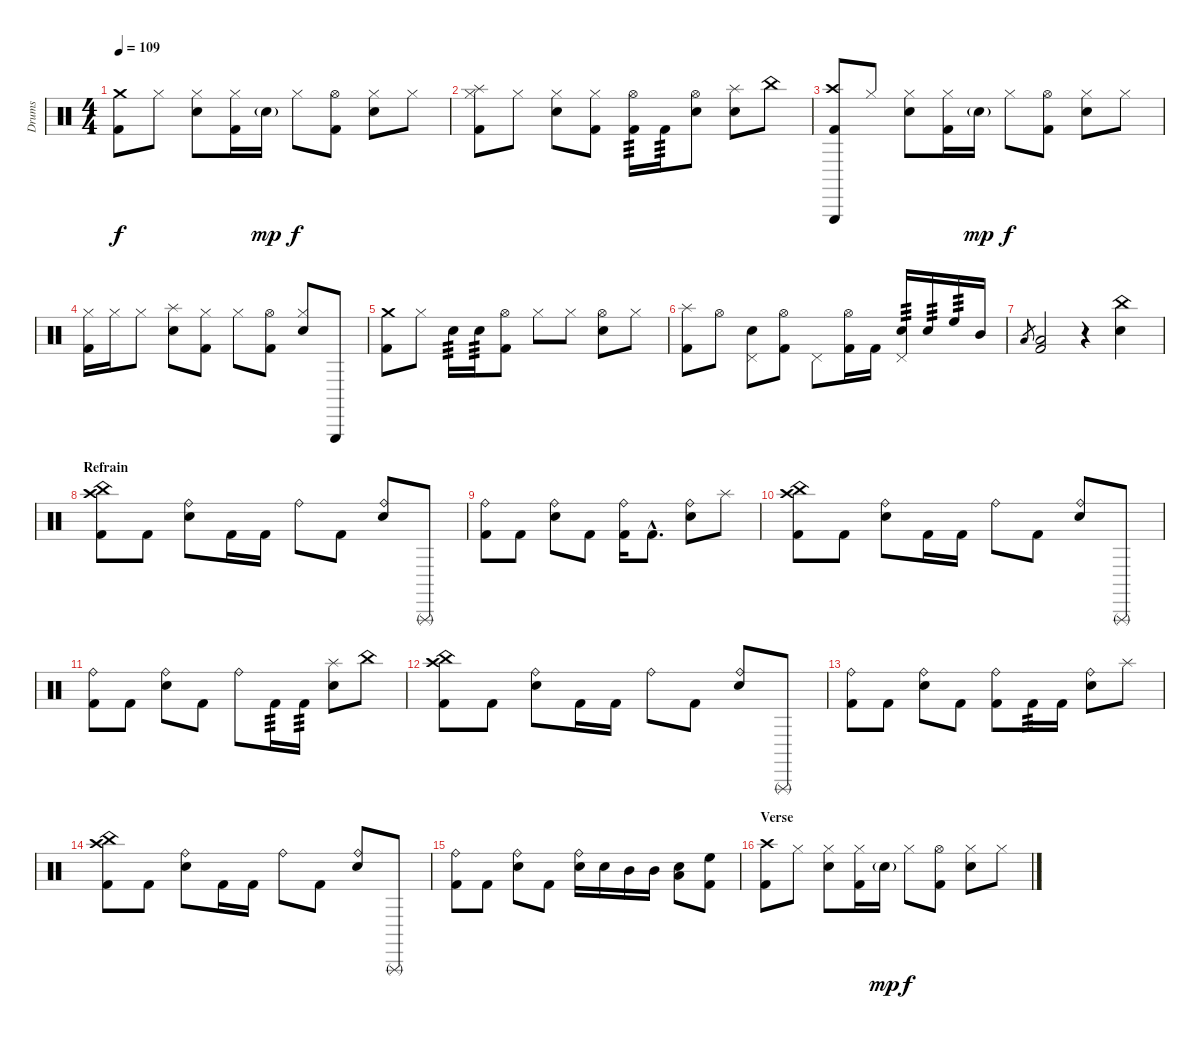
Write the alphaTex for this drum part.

\track ("Drums" "Drums") {instrument percussion}
\staff {score}
\articulation defaults
\ts (4 4)
\tempo 109
\clef neutral
\ks c
("Crash medium (hit)" "Kick (hit) 2").8{dy f} "Hi-Hat (closed)".8 ("Hi-Hat (closed)" "Snare (hit) 2").8 ("Hi-Hat (closed)" "Kick (hit) 2").16 "Snare (hit) 2"{g}.16{dy mp} "Hi-Hat (closed)".8{dy f} ("Hi-Hat (open)" "Kick (hit) 2").8 ("Hi-Hat (closed)" "Snare (hit) 2").8 "Hi-Hat (closed)".8 |
("Hi-Hat (closed)" "Splash (hit)" "Kick (hit) 2").8 "Hi-Hat (closed)".8 ("Hi-Hat (closed)" "Snare (hit) 2").8 ("Hi-Hat (closed)" "Kick (hit) 2").8 ("Hi-Hat (open)" "Kick (hit) 2").16{tp 3} "Kick (hit) 2".16{tp 3} ("Hi-Hat (open)" "Snare (hit) 2").8 ("Splash (hit)" "Snare (hit) 2").8 "China (hit)".8 |
("Crash high (hit)" "Triangle (hit)" "Kick (hit) 2").8 "Hi-Hat (closed)".8 ("Hi-Hat (closed)" "Snare (hit) 2").8 ("Hi-Hat (closed)" "Kick (hit) 2").16 "Snare (hit) 2"{g}.16{dy mp} "Hi-Hat (closed)".8{dy f} ("Hi-Hat (open)" "Kick (hit) 2").8 ("Hi-Hat (closed)" "Snare (hit) 2").8 "Hi-Hat (closed)".8 |
("Hi-Hat (closed)" "Kick (hit) 2").16 "Hi-Hat (closed)".16 "Hi-Hat (closed)".8 ("Splash (hit)" "Snare (hit) 2").8 ("Hi-Hat (closed)" "Kick (hit) 2").8 "Hi-Hat (closed)".8 ("Hi-Hat (open)" "Kick (hit) 2").8 ("Hi-Hat (closed)" "Snare (hit) 2").8 "Triangle (hit)".8 |
("Crash medium (hit)" "Kick (hit) 2").8 "Hi-Hat (closed)".8 "Snare (hit) 2".16{tp 3} "Snare (hit) 2".16{tp 3} ("Hi-Hat (open)" "Kick (hit) 2").8 "Hi-Hat (closed)".8 "Hi-Hat (closed)".8 ("Hi-Hat (open)" "Snare (hit) 2").8 "Hi-Hat (closed)".8 |
("Splash (hit)" "Kick (hit) 2").8 "Hi-Hat (open)".8 ("Pedal Hi-Hat (hit)" "Snare (hit) 2").8 ("Hi-Hat (open)" "Kick (hit) 2").8 "Pedal Hi-Hat (hit)".8 ("Hi-Hat (open)" "Kick (hit) 2").16 "Kick (hit) 2".16 ("Pedal Hi-Hat (hit)" "Snare (hit) 2").16{tp 3} "Snare (hit) 2".16{tp 3} "High Floor Tom (hit)".16{tp 3} "Mid Tom (hit)".16 |
"Low Tom (hit)".8{gr} ("Low Tom (hit)" "Kick (hit) 2").2 r.4 ("China (hit)" "Snare (hit) 2").4 |
\section ("" "Refrain")
("Crash high (hit)" "China (hit)" "Kick (hit) 2").8 "Kick (hit) 2".8 ("Ride (bell)" "Snare (hit) 2").8 "Kick (hit) 2".16 "Kick (hit) 2".16 "Ride (bell)".8 "Kick (hit) 2".8 ("Ride (bell)" "Snare (hit) 2").8 "Triangle (rnute)".8 |
("Ride (bell)" "Kick (hit) 2").8 "Kick (hit) 2".8 ("Ride (bell)" "Snare (hit) 2").8 "Kick (hit) 2".8 ("Ride (bell)" "Kick (hit) 2").16 "Kick (hit) 2"{hac}.8{d} ("Ride (bell)" "Electric Snare (hit)").8 "Splash (hit)".8 |
("Crash high (hit)" "China (hit)" "Kick (hit) 2").8 "Kick (hit) 2".8 ("Ride (bell)" "Snare (hit) 2").8 "Kick (hit) 2".16 "Kick (hit) 2".16 "Ride (bell)".8 "Kick (hit) 2".8 ("Ride (bell)" "Snare (hit) 2").8 "Triangle (rnute)".8 |
("Ride (bell)" "Kick (hit) 2").8 "Kick (hit) 2".8 ("Ride (bell)" "Snare (hit) 2").8 "Kick (hit) 2".8 "Ride (bell)".8 "Kick (hit) 2".16{tp 3} "Kick (hit) 2".16{tp 3} ("Splash (hit)" "Electric Snare (hit)").8 "China (hit)".8 |
("Crash high (hit)" "China (hit)" "Kick (hit) 2").8 "Kick (hit) 2".8 ("Ride (bell)" "Snare (hit) 2").8 "Kick (hit) 2".16 "Kick (hit) 2".16 "Ride (bell)".8 "Kick (hit) 2".8 ("Ride (bell)" "Snare (hit) 2").8 "Triangle (rnute)".8 |
("Ride (bell)" "Kick (hit) 2").8 "Kick (hit) 2".8 ("Ride (bell)" "Snare (hit) 2").8 "Kick (hit) 2".8 ("Ride (bell)" "Kick (hit) 2").8 "Kick (hit) 2".16{tp 3} "Kick (hit) 2".16 ("Ride (bell)" "Electric Snare (hit)").8 "Splash (hit)".8 |
("Crash high (hit)" "China (hit)" "Kick (hit) 2").8 "Kick (hit) 2".8 ("Ride (bell)" "Snare (hit) 2").8 "Kick (hit) 2".16 "Kick (hit) 2".16 "Ride (bell)".8 "Kick (hit) 2".8 ("Ride (bell)" "Snare (hit) 2").8 "Triangle (rnute)".8 |
("Ride (bell)" "Kick (hit) 2").8 "Kick (hit) 2".8 ("Ride (bell)" "Snare (hit) 2").8 "Kick (hit) 2".8 ("Ride (bell)" "Snare (hit) 2").16 "Snare (hit) 2".16 "Mid Tom (hit)".16 "Mid Tom (hit)".16 ("Snare (hit) 2" "Low Tom (hit)").8 ("High Floor Tom (hit)" "Kick (hit) 2").8 |
\section ("" "Verse")
("Crash high (hit)" "Kick (hit) 2").8 "Hi-Hat (closed)".8 ("Hi-Hat (closed)" "Snare (hit) 2").8 ("Hi-Hat (closed)" "Kick (hit) 2").16 "Snare (hit) 2"{g}.16{dy mp} "Hi-Hat (closed)".8{dy f} ("Hi-Hat (open)" "Kick (hit) 2").8 ("Hi-Hat (closed)" "Snare (hit) 2").8 "Hi-Hat (closed)".8
